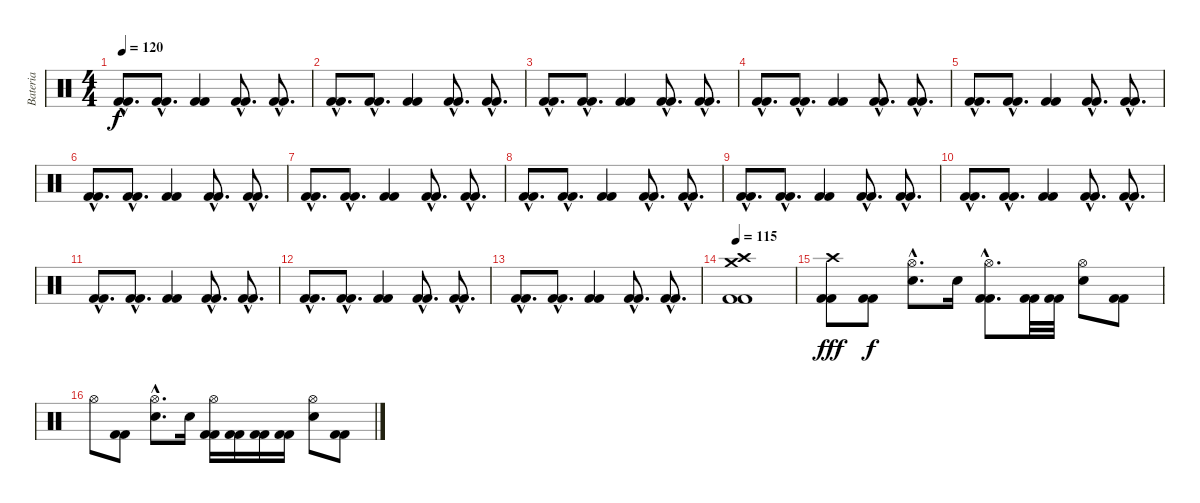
\track ("Bateria" "Bateria") {instrument percussion}
\staff {score}
\articulation defaults
\ts (4 4)
\tempo 120
\clef neutral
\ks c
("Kick (hit) 2"{hac} "Kick (hit) 2"{hac}).8{d dy f} ("Kick (hit) 2"{hac} "Kick (hit) 2"{hac}).8{d} ("Kick (hit) 2" "Kick (hit) 2").4 ("Kick (hit) 2"{hac} "Kick (hit) 2"{hac}).8{d} ("Kick (hit) 2"{hac} "Kick (hit) 2"{hac}).8{d} |
("Kick (hit) 2"{hac} "Kick (hit) 2"{hac}).8{d} ("Kick (hit) 2"{hac} "Kick (hit) 2"{hac}).8{d} ("Kick (hit) 2" "Kick (hit) 2").4 ("Kick (hit) 2"{hac} "Kick (hit) 2"{hac}).8{d} ("Kick (hit) 2"{hac} "Kick (hit) 2"{hac}).8{d} |
("Kick (hit) 2"{hac} "Kick (hit) 2"{hac}).8{d} ("Kick (hit) 2"{hac} "Kick (hit) 2"{hac}).8{d} ("Kick (hit) 2" "Kick (hit) 2").4 ("Kick (hit) 2"{hac} "Kick (hit) 2"{hac}).8{d} ("Kick (hit) 2"{hac} "Kick (hit) 2"{hac}).8{d} |
("Kick (hit) 2"{hac} "Kick (hit) 2"{hac}).8{d} ("Kick (hit) 2"{hac} "Kick (hit) 2"{hac}).8{d} ("Kick (hit) 2" "Kick (hit) 2").4 ("Kick (hit) 2"{hac} "Kick (hit) 2"{hac}).8{d} ("Kick (hit) 2"{hac} "Kick (hit) 2"{hac}).8{d} |
("Kick (hit) 2"{hac} "Kick (hit) 2"{hac}).8{d} ("Kick (hit) 2"{hac} "Kick (hit) 2"{hac}).8{d} ("Kick (hit) 2" "Kick (hit) 2").4 ("Kick (hit) 2"{hac} "Kick (hit) 2"{hac}).8{d} ("Kick (hit) 2"{hac} "Kick (hit) 2"{hac}).8{d} |
("Kick (hit) 2"{hac} "Kick (hit) 2"{hac}).8{d} ("Kick (hit) 2"{hac} "Kick (hit) 2"{hac}).8{d} ("Kick (hit) 2" "Kick (hit) 2").4 ("Kick (hit) 2"{hac} "Kick (hit) 2"{hac}).8{d} ("Kick (hit) 2"{hac} "Kick (hit) 2"{hac}).8{d} |
("Kick (hit) 2"{hac} "Kick (hit) 2"{hac}).8{d} ("Kick (hit) 2"{hac} "Kick (hit) 2"{hac}).8{d} ("Kick (hit) 2" "Kick (hit) 2").4 ("Kick (hit) 2"{hac} "Kick (hit) 2"{hac}).8{d} ("Kick (hit) 2"{hac} "Kick (hit) 2"{hac}).8{d} |
("Kick (hit) 2"{hac} "Kick (hit) 2"{hac}).8{d} ("Kick (hit) 2"{hac} "Kick (hit) 2"{hac}).8{d} ("Kick (hit) 2" "Kick (hit) 2").4 ("Kick (hit) 2"{hac} "Kick (hit) 2"{hac}).8{d} ("Kick (hit) 2"{hac} "Kick (hit) 2"{hac}).8{d} |
("Kick (hit) 2"{hac} "Kick (hit) 2"{hac}).8{d} ("Kick (hit) 2"{hac} "Kick (hit) 2"{hac}).8{d} ("Kick (hit) 2" "Kick (hit) 2").4 ("Kick (hit) 2"{hac} "Kick (hit) 2"{hac}).8{d} ("Kick (hit) 2"{hac} "Kick (hit) 2"{hac}).8{d} |
("Kick (hit) 2"{hac} "Kick (hit) 2"{hac}).8{d} ("Kick (hit) 2"{hac} "Kick (hit) 2"{hac}).8{d} ("Kick (hit) 2" "Kick (hit) 2").4 ("Kick (hit) 2"{hac} "Kick (hit) 2"{hac}).8{d} ("Kick (hit) 2"{hac} "Kick (hit) 2"{hac}).8{d} |
("Kick (hit) 2"{hac} "Kick (hit) 2"{hac}).8{d} ("Kick (hit) 2"{hac} "Kick (hit) 2"{hac}).8{d} ("Kick (hit) 2" "Kick (hit) 2").4 ("Kick (hit) 2"{hac} "Kick (hit) 2"{hac}).8{d} ("Kick (hit) 2"{hac} "Kick (hit) 2"{hac}).8{d} |
("Kick (hit) 2"{hac} "Kick (hit) 2"{hac}).8{d} ("Kick (hit) 2"{hac} "Kick (hit) 2"{hac}).8{d} ("Kick (hit) 2" "Kick (hit) 2").4 ("Kick (hit) 2"{hac} "Kick (hit) 2"{hac}).8{d} ("Kick (hit) 2"{hac} "Kick (hit) 2"{hac}).8{d} |
("Kick (hit) 2"{hac} "Kick (hit) 2"{hac}).8{d} ("Kick (hit) 2"{hac} "Kick (hit) 2"{hac}).8{d} ("Kick (hit) 2" "Kick (hit) 2").4 ("Kick (hit) 2"{hac} "Kick (hit) 2"{hac}).8{d} ("Kick (hit) 2"{hac} "Kick (hit) 2"{hac}).8{d} |
\tempo 115
("Crash high (hit)" "Crash medium (hit)" "Kick (hit) 2" "Kick (hit) 2").1 |
("Crash high (hit)" "Kick (hit) 2" "Kick (hit) 2").8{dy fff} ("Kick (hit) 2" "Kick (hit) 2").8{dy f} ("Hi-Hat (open)"{hac} "Electric Snare (hit)"{hac}).8{d} "Electric Snare (hit)".16 ("Hi-Hat (open)"{hac} "Kick (hit) 2"{hac} "Kick (hit) 2"{hac}).8{d} ("Kick (hit) 2" "Kick (hit) 2").32 ("Kick (hit) 2" "Kick (hit) 2").32 ("Hi-Hat (open)" "Electric Snare (hit)").8 ("Kick (hit) 2" "Kick (hit) 2").8 |
"Hi-Hat (open)".8 ("Kick (hit) 2" "Kick (hit) 2").8 ("Hi-Hat (open)"{hac} "Electric Snare (hit)"{hac}).8{d} "Electric Snare (hit)".16 ("Hi-Hat (open)" "Kick (hit) 2" "Kick (hit) 2").16 ("Kick (hit) 2" "Kick (hit) 2").16 ("Kick (hit) 2" "Kick (hit) 2").16 ("Kick (hit) 2" "Kick (hit) 2").16 ("Hi-Hat (open)" "Electric Snare (hit)").8 ("Kick (hit) 2" "Kick (hit) 2").8
